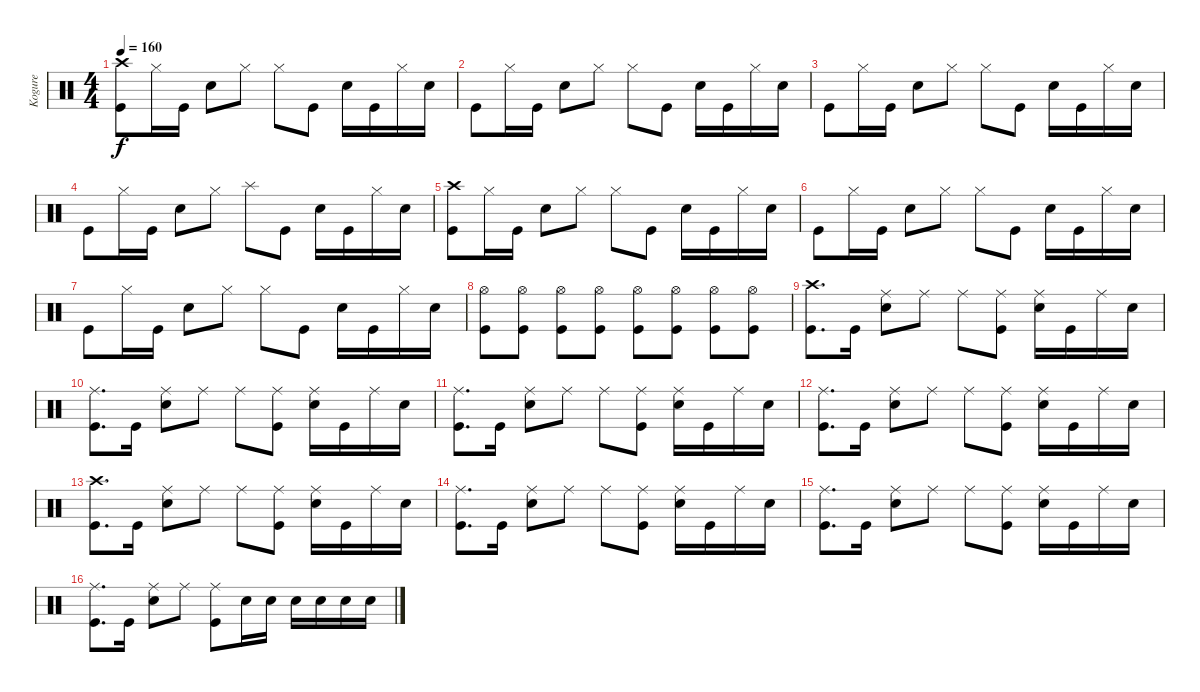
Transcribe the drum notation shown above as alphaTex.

\track ("Kogure" "Kogure") {instrument percussion}
\staff {score}
\articulation defaults
\ts (4 4)
\tempo 160
\clef neutral
\ks c
("Crash high (hit)" "Kick (hit)").8{dy f} "Hi-Hat (closed)".16 "Kick (hit)".16 "Snare (hit) 2".8 "Hi-Hat (closed)".8 "Hi-Hat (closed)".8 "Kick (hit)".8 "Snare (hit) 2".16 "Kick (hit)".16 "Hi-Hat (closed)".16 "Snare (hit) 2".16 |
"Kick (hit)".8 "Hi-Hat (closed)".16 "Kick (hit)".16 "Snare (hit) 2".8 "Hi-Hat (closed)".8 "Hi-Hat (closed)".8 "Kick (hit)".8 "Snare (hit) 2".16 "Kick (hit)".16 "Hi-Hat (closed)".16 "Snare (hit) 2".16 |
"Kick (hit)".8 "Hi-Hat (closed)".16 "Kick (hit)".16 "Snare (hit) 2".8 "Hi-Hat (closed)".8 "Hi-Hat (closed)".8 "Kick (hit)".8 "Snare (hit) 2".16 "Kick (hit)".16 "Hi-Hat (closed)".16 "Snare (hit) 2".16 |
"Kick (hit)".8 "Hi-Hat (closed)".16 "Kick (hit)".16 "Snare (hit) 2".8 "Hi-Hat (closed)".8 "Splash (hit)".8 "Kick (hit)".8 "Snare (hit) 2".16 "Kick (hit)".16 "Hi-Hat (closed)".16 "Snare (hit) 2".16 |
("Crash high (hit)" "Kick (hit)").8 "Hi-Hat (closed)".16 "Kick (hit)".16 "Snare (hit) 2".8 "Hi-Hat (closed)".8 "Hi-Hat (closed)".8 "Kick (hit)".8 "Snare (hit) 2".16 "Kick (hit)".16 "Hi-Hat (closed)".16 "Snare (hit) 2".16 |
"Kick (hit)".8 "Hi-Hat (closed)".16 "Kick (hit)".16 "Snare (hit) 2".8 "Hi-Hat (closed)".8 "Hi-Hat (closed)".8 "Kick (hit)".8 "Snare (hit) 2".16 "Kick (hit)".16 "Hi-Hat (closed)".16 "Snare (hit) 2".16 |
"Kick (hit)".8 "Hi-Hat (closed)".16 "Kick (hit)".16 "Snare (hit) 2".8 "Hi-Hat (closed)".8 "Hi-Hat (closed)".8 "Kick (hit)".8 "Snare (hit) 2".16 "Kick (hit)".16 "Hi-Hat (closed)".16 "Snare (hit) 2".16 |
("Hi-Hat (open)" "Kick (hit)").8 ("Hi-Hat (open)" "Kick (hit)").8 ("Hi-Hat (open)" "Kick (hit)").8 ("Hi-Hat (open)" "Kick (hit)").8 ("Hi-Hat (open)" "Kick (hit)").8 ("Hi-Hat (open)" "Kick (hit)").8 ("Hi-Hat (open)" "Kick (hit)").8 ("Hi-Hat (open)" "Kick (hit)").8 |
("Crash high (hit)" "Kick (hit)").8{d} "Kick (hit)".16 ("Ride (middle)" "Snare (hit) 2").8 "Ride (middle)".8 "Ride (middle)".8 ("Ride (middle)" "Kick (hit)").8 ("Ride (middle)" "Snare (hit) 2").16 "Kick (hit)".16 "Ride (middle)".16 "Snare (hit) 2".16 |
("Ride (middle)" "Kick (hit)").8{d} "Kick (hit)".16 ("Ride (middle)" "Snare (hit) 2").8 "Ride (middle)".8 "Ride (middle)".8 ("Ride (middle)" "Kick (hit)").8 ("Ride (middle)" "Snare (hit) 2").16 "Kick (hit)".16 "Ride (middle)".16 "Snare (hit) 2".16 |
("Ride (middle)" "Kick (hit)").8{d} "Kick (hit)".16 ("Ride (middle)" "Snare (hit) 2").8 "Ride (middle)".8 "Ride (middle)".8 ("Ride (middle)" "Kick (hit)").8 ("Ride (middle)" "Snare (hit) 2").16 "Kick (hit)".16 "Ride (middle)".16 "Snare (hit) 2".16 |
("Ride (middle)" "Kick (hit)").8{d} "Kick (hit)".16 ("Ride (middle)" "Snare (hit) 2").8 "Ride (middle)".8 "Ride (middle)".8 ("Ride (middle)" "Kick (hit)").8 ("Ride (middle)" "Snare (hit) 2").16 "Kick (hit)".16 "Ride (middle)".16 "Snare (hit) 2".16 |
("Crash high (hit)" "Kick (hit)").8{d} "Kick (hit)".16 ("Ride (middle)" "Snare (hit) 2").8 "Ride (middle)".8 "Ride (middle)".8 ("Ride (middle)" "Kick (hit)").8 ("Ride (middle)" "Snare (hit) 2").16 "Kick (hit)".16 "Ride (middle)".16 "Snare (hit) 2".16 |
("Ride (middle)" "Kick (hit)").8{d} "Kick (hit)".16 ("Ride (middle)" "Snare (hit) 2").8 "Ride (middle)".8 "Ride (middle)".8 ("Ride (middle)" "Kick (hit)").8 ("Ride (middle)" "Snare (hit) 2").16 "Kick (hit)".16 "Ride (middle)".16 "Snare (hit) 2".16 |
("Ride (middle)" "Kick (hit)").8{d} "Kick (hit)".16 ("Ride (middle)" "Snare (hit) 2").8 "Ride (middle)".8 "Ride (middle)".8 ("Ride (middle)" "Kick (hit)").8 ("Ride (middle)" "Snare (hit) 2").16 "Kick (hit)".16 "Ride (middle)".16 "Snare (hit) 2".16 |
("Ride (middle)" "Kick (hit)").8{d} "Kick (hit)".16 ("Ride (middle)" "Snare (hit) 2").8 "Ride (middle)".8 ("Ride (middle)" "Kick (hit)").8 "Snare (hit) 2".16 "Snare (hit) 2".16 "Snare (hit) 2".16 "Snare (hit) 2".16 "Snare (hit) 2".16 "Snare (hit) 2".16
